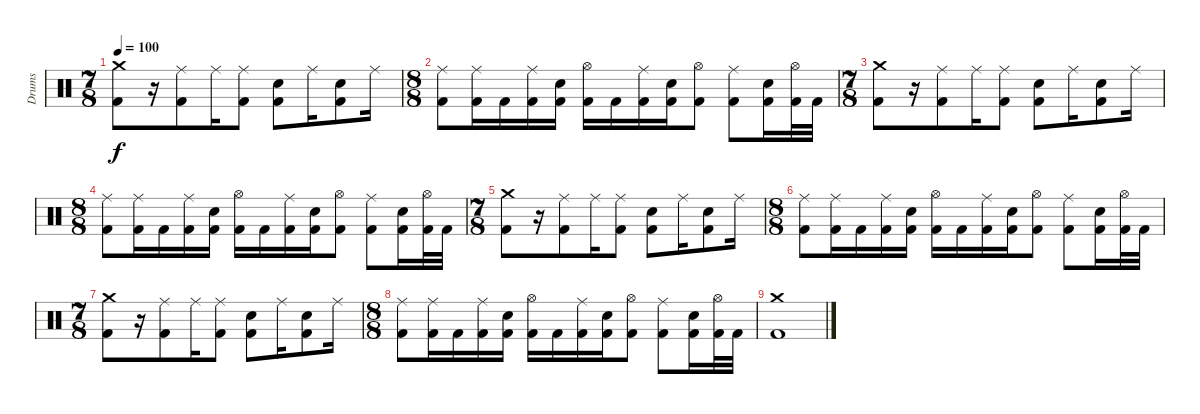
\track ("Drums" "Drums") {instrument percussion}
\staff {score}
\articulation defaults
\ts (7 8)
\tempo 100
\clef neutral
\ks c
("Crash medium (hit)" "Kick (hit) 2").8{dy f} r.16 ("Ride (middle)" "Kick (hit) 2").8 "Ride (middle)".16 ("Ride (middle)" "Kick (hit) 2").8 ("Snare (hit) 2" "Kick (hit) 2").8 "Ride (middle)".16 ("Snare (hit) 2" "Kick (hit) 2").8 "Ride (middle)".16 |
\ts (8 8)
("Ride (middle)" "Kick (hit) 2").8 ("Ride (middle)" "Kick (hit) 2").16 "Kick (hit) 2".16 ("Ride (middle)" "Kick (hit) 2").16 ("Snare (hit) 2" "Kick (hit) 2").16 ("Hi-Hat (open)" "Kick (hit) 2").16 "Kick (hit) 2".16 ("Ride (middle)" "Kick (hit) 2").16 ("Snare (hit) 2" "Kick (hit) 2").16 ("Hi-Hat (open)" "Kick (hit) 2").8 ("Ride (middle)" "Kick (hit) 2").8 ("Snare (hit) 2" "Kick (hit) 2").16 ("Hi-Hat (open)" "Kick (hit) 2").32 "Kick (hit) 2".32 |
\ts (7 8)
("Crash medium (hit)" "Kick (hit) 2").8 r.16 ("Ride (middle)" "Kick (hit) 2").8 "Ride (middle)".16 ("Ride (middle)" "Kick (hit) 2").8 ("Snare (hit) 2" "Kick (hit) 2").8 "Ride (middle)".16 ("Snare (hit) 2" "Kick (hit) 2").8 "Ride (middle)".16 |
\ts (8 8)
("Ride (middle)" "Kick (hit) 2").8 ("Ride (middle)" "Kick (hit) 2").16 "Kick (hit) 2".16 ("Ride (middle)" "Kick (hit) 2").16 ("Snare (hit) 2" "Kick (hit) 2").16 ("Hi-Hat (open)" "Kick (hit) 2").16 "Kick (hit) 2".16 ("Ride (middle)" "Kick (hit) 2").16 ("Snare (hit) 2" "Kick (hit) 2").16 ("Hi-Hat (open)" "Kick (hit) 2").8 ("Ride (middle)" "Kick (hit) 2").8 ("Snare (hit) 2" "Kick (hit) 2").16 ("Hi-Hat (open)" "Kick (hit) 2").32 "Kick (hit) 2".32 |
\ts (7 8)
("Crash medium (hit)" "Kick (hit) 2").8 r.16 ("Ride (middle)" "Kick (hit) 2").8 "Ride (middle)".16 ("Ride (middle)" "Kick (hit) 2").8 ("Snare (hit) 2" "Kick (hit) 2").8 "Ride (middle)".16 ("Snare (hit) 2" "Kick (hit) 2").8 "Ride (middle)".16 |
\ts (8 8)
("Ride (middle)" "Kick (hit) 2").8 ("Ride (middle)" "Kick (hit) 2").16 "Kick (hit) 2".16 ("Ride (middle)" "Kick (hit) 2").16 ("Snare (hit) 2" "Kick (hit) 2").16 ("Hi-Hat (open)" "Kick (hit) 2").16 "Kick (hit) 2".16 ("Ride (middle)" "Kick (hit) 2").16 ("Snare (hit) 2" "Kick (hit) 2").16 ("Hi-Hat (open)" "Kick (hit) 2").8 ("Ride (middle)" "Kick (hit) 2").8 ("Snare (hit) 2" "Kick (hit) 2").16 ("Hi-Hat (open)" "Kick (hit) 2").32 "Kick (hit) 2".32 |
\ts (7 8)
("Crash medium (hit)" "Kick (hit) 2").8 r.16 ("Ride (middle)" "Kick (hit) 2").8 "Ride (middle)".16 ("Ride (middle)" "Kick (hit) 2").8 ("Snare (hit) 2" "Kick (hit) 2").8 "Ride (middle)".16 ("Snare (hit) 2" "Kick (hit) 2").8 "Ride (middle)".16 |
\ts (8 8)
("Ride (middle)" "Kick (hit) 2").8 ("Ride (middle)" "Kick (hit) 2").16 "Kick (hit) 2".16 ("Ride (middle)" "Kick (hit) 2").16 ("Snare (hit) 2" "Kick (hit) 2").16 ("Hi-Hat (open)" "Kick (hit) 2").16 "Kick (hit) 2".16 ("Ride (middle)" "Kick (hit) 2").16 ("Snare (hit) 2" "Kick (hit) 2").16 ("Hi-Hat (open)" "Kick (hit) 2").8 ("Ride (middle)" "Kick (hit) 2").8 ("Snare (hit) 2" "Kick (hit) 2").16 ("Hi-Hat (open)" "Kick (hit) 2").32 "Kick (hit) 2".32 |
("Crash medium (hit)" "Kick (hit) 2").1
